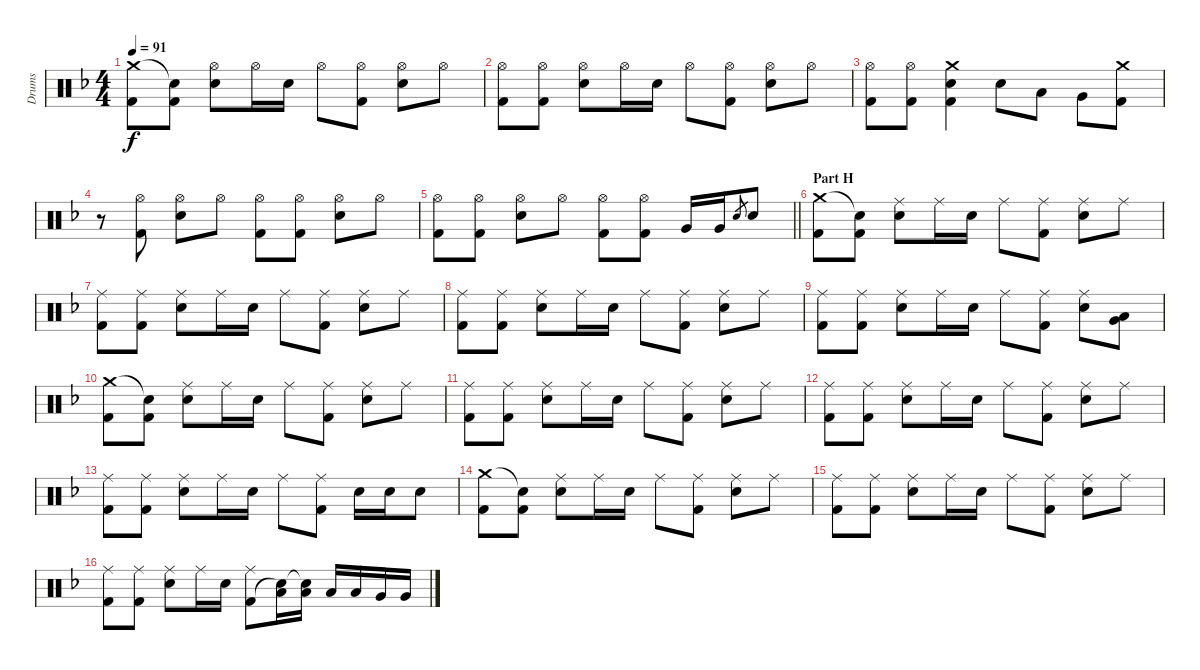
\track ("Drums" "Drums") {instrument percussion}
\staff {score}
\articulation defaults
\ts (4 4)
\tempo 91
\clef neutral
\ks f
("Crash medium (hit)" "Kick (hit) 2").8{dy f} ("Snare (hit)"{t} "Kick (hit) 2").8 ("Hi-Hat (open)" "Electric Snare (hit)").8 "Hi-Hat (open)".16 "Electric Snare (hit)".16 "Hi-Hat (open)".8 ("Hi-Hat (open)" "Kick (hit) 2").8 ("Hi-Hat (open)" "Electric Snare (hit)").8 "Hi-Hat (open)".8 |
("Hi-Hat (open)" "Kick (hit) 2").8 ("Hi-Hat (open)" "Kick (hit) 2").8 ("Hi-Hat (open)" "Electric Snare (hit)").8 "Hi-Hat (open)".16 "Electric Snare (hit)".16 "Hi-Hat (open)".8 ("Hi-Hat (open)" "Kick (hit) 2").8 ("Hi-Hat (open)" "Electric Snare (hit)").8 "Hi-Hat (open)".8 |
("Hi-Hat (open)" "Kick (hit) 2").8 ("Hi-Hat (open)" "Kick (hit) 2").8 ("Crash medium (hit)" "Electric Snare (hit)" "Kick (hit) 2").4 "Electric Snare (hit)".8 "Low Tom (hit)".8 "Very Low Tom (hit)".8 ("Crash medium (hit)" "Kick (hit) 2").8 |
r.8 ("Hi-Hat (open)" "Kick (hit) 2").8 ("Hi-Hat (open)" "Electric Snare (hit)").8 "Hi-Hat (open)".8 ("Hi-Hat (open)" "Kick (hit) 2").8 ("Hi-Hat (open)" "Kick (hit) 2").8 ("Hi-Hat (open)" "Electric Snare (hit)").8 "Hi-Hat (open)".8 |
\barLineRight lightlight
("Hi-Hat (open)" "Kick (hit) 2").8 ("Hi-Hat (open)" "Kick (hit) 2").8 ("Hi-Hat (open)" "Electric Snare (hit)").8 "Hi-Hat (open)".8 ("Hi-Hat (open)" "Kick (hit) 2").8 ("Hi-Hat (open)" "Kick (hit) 2").8 "Very Low Tom (hit)".16 "Very Low Tom (hit)".16 "Electric Snare (hit)".8{gr} "Electric Snare (hit)".8 |
\section ("" "Part H")
("Crash medium (hit)" "Kick (hit) 2").8 ("Snare (hit)"{t} "Kick (hit) 2").8 ("Ride (middle)" "Electric Snare (hit)").8 "Ride (middle)".16 "Electric Snare (hit)".16 "Ride (middle)".8 ("Ride (middle)" "Kick (hit) 2").8 ("Ride (middle)" "Electric Snare (hit)").8 "Ride (middle)".8 |
("Ride (middle)" "Kick (hit) 2").8 ("Ride (middle)" "Kick (hit) 2").8 ("Ride (middle)" "Electric Snare (hit)").8 "Ride (middle)".16 "Electric Snare (hit)".16 "Ride (middle)".8 ("Ride (middle)" "Kick (hit) 2").8 ("Ride (middle)" "Electric Snare (hit)").8 "Ride (middle)".8 |
("Ride (middle)" "Kick (hit) 2").8 ("Ride (middle)" "Kick (hit) 2").8 ("Ride (middle)" "Electric Snare (hit)").8 "Ride (middle)".16 "Electric Snare (hit)".16 "Ride (middle)".8 ("Ride (middle)" "Kick (hit) 2").8 ("Ride (middle)" "Electric Snare (hit)").8 "Ride (middle)".8 |
("Ride (middle)" "Kick (hit) 2").8 ("Ride (middle)" "Kick (hit) 2").8 ("Ride (middle)" "Electric Snare (hit)").8 "Ride (middle)".16 "Electric Snare (hit)".16 "Ride (middle)".8 ("Ride (middle)" "Kick (hit) 2").8 ("Ride (middle)" "Electric Snare (hit)").8 ("Very Low Tom (hit)" "Low Floor Tom (hit)").8 |
("Crash medium (hit)" "Kick (hit) 2").8 ("Snare (hit)"{t} "Kick (hit) 2").8 ("Ride (middle)" "Electric Snare (hit)").8 "Ride (middle)".16 "Electric Snare (hit)".16 "Ride (middle)".8 ("Ride (middle)" "Kick (hit) 2").8 ("Ride (middle)" "Electric Snare (hit)").8 "Ride (middle)".8 |
("Ride (middle)" "Kick (hit) 2").8 ("Ride (middle)" "Kick (hit) 2").8 ("Ride (middle)" "Electric Snare (hit)").8 "Ride (middle)".16 "Electric Snare (hit)".16 "Ride (middle)".8 ("Ride (middle)" "Kick (hit) 2").8 ("Ride (middle)" "Electric Snare (hit)").8 "Ride (middle)".8 |
("Ride (middle)" "Kick (hit) 2").8 ("Ride (middle)" "Kick (hit) 2").8 ("Ride (middle)" "Electric Snare (hit)").8 "Ride (middle)".16 "Electric Snare (hit)".16 "Ride (middle)".8 ("Ride (middle)" "Kick (hit) 2").8 ("Ride (middle)" "Electric Snare (hit)").8 "Ride (middle)".8 |
("Ride (middle)" "Kick (hit) 2").8 ("Ride (middle)" "Kick (hit) 2").8 ("Ride (middle)" "Electric Snare (hit)").8 "Ride (middle)".16 "Electric Snare (hit)".16 "Ride (middle)".8 ("Ride (middle)" "Kick (hit) 2").8 "Electric Snare (hit)".16 "Electric Snare (hit)".16 "Electric Snare (hit)".8 |
("Crash medium (hit)" "Kick (hit) 2").8 ("Snare (hit)"{t} "Kick (hit) 2").8 ("Ride (middle)" "Electric Snare (hit)").8 "Ride (middle)".16 "Electric Snare (hit)".16 "Ride (middle)".8 ("Ride (middle)" "Kick (hit) 2").8 ("Ride (middle)" "Electric Snare (hit)").8 "Ride (middle)".8 |
("Ride (middle)" "Kick (hit) 2").8 ("Ride (middle)" "Kick (hit) 2").8 ("Ride (middle)" "Electric Snare (hit)").8 "Ride (middle)".16 "Electric Snare (hit)".16 "Ride (middle)".8 ("Ride (middle)" "Kick (hit) 2").8 ("Ride (middle)" "Electric Snare (hit)").8 "Ride (middle)".8 |
("Ride (middle)" "Kick (hit) 2").8 ("Ride (middle)" "Kick (hit) 2").8 ("Ride (middle)" "Electric Snare (hit)").8 "Ride (middle)".16 "Electric Snare (hit)".16 ("Ride (middle)" "Kick (hit) 2").8 ("Low Tom (hit)" "Snare (hit)"{t}).16 ("Low Tom (hit)" "Snare (hit)"{t}).16 "Low Tom (hit)".16 "Low Tom (hit)".16 "Very Low Tom (hit)".16 "Very Low Tom (hit)".16
